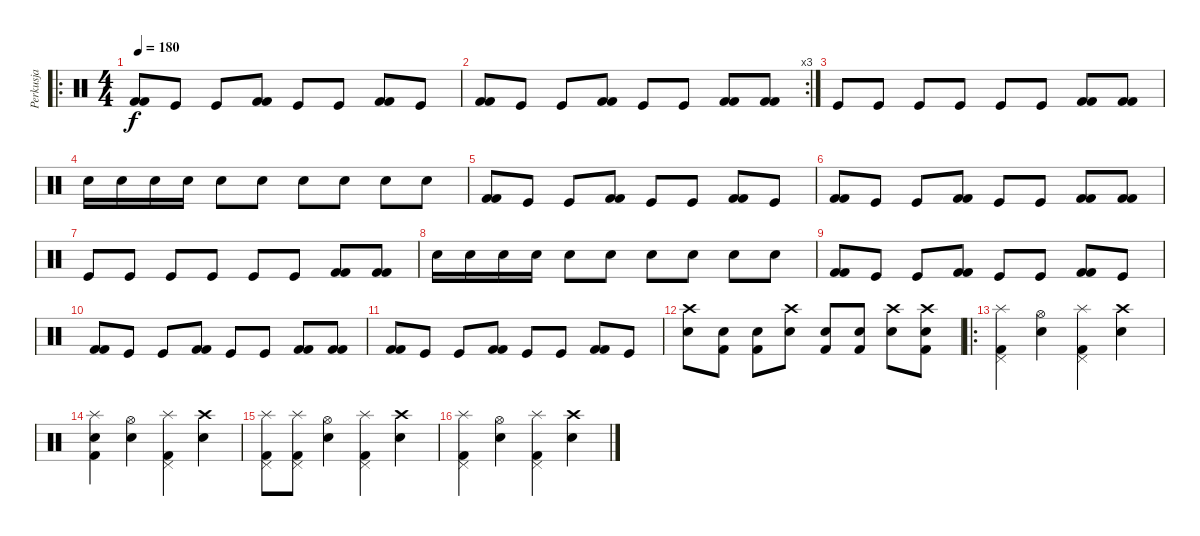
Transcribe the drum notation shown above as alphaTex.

\track ("Perkusja" "Perkusja") {instrument percussion}
\staff {score}
\articulation defaults
\ro
\ts (4 4)
\tempo 180
\clef neutral
\ks c
("Kick (hit) 2" "Kick (hit) 2").8{dy f} "Kick (hit)".8 "Kick (hit)".8 ("Kick (hit) 2" "Kick (hit) 2").8 "Kick (hit)".8 "Kick (hit)".8 ("Kick (hit) 2" "Kick (hit) 2").8 "Kick (hit)".8 |
\rc 3
("Kick (hit) 2" "Kick (hit) 2").8 "Kick (hit)".8 "Kick (hit)".8 ("Kick (hit) 2" "Kick (hit) 2").8 "Kick (hit)".8 "Kick (hit)".8 ("Kick (hit) 2" "Kick (hit) 2").8 ("Kick (hit) 2" "Kick (hit) 2").8 |
"Kick (hit)".8 "Kick (hit)".8 "Kick (hit)".8 "Kick (hit)".8 "Kick (hit)".8 "Kick (hit)".8 ("Kick (hit) 2" "Kick (hit) 2").8 ("Kick (hit) 2" "Kick (hit) 2").8 |
"Snare (hit) 2".16 "Snare (hit) 2".16 "Snare (hit) 2".16 "Snare (hit) 2".16 "Snare (hit) 2".8 "Snare (hit) 2".8 "Snare (hit) 2".8 "Snare (hit) 2".8 "Snare (hit) 2".8 "Snare (hit) 2".8 |
("Kick (hit) 2" "Kick (hit) 2").8 "Kick (hit)".8 "Kick (hit)".8 ("Kick (hit) 2" "Kick (hit) 2").8 "Kick (hit)".8 "Kick (hit)".8 ("Kick (hit) 2" "Kick (hit) 2").8 "Kick (hit)".8 |
("Kick (hit) 2" "Kick (hit) 2").8 "Kick (hit)".8 "Kick (hit)".8 ("Kick (hit) 2" "Kick (hit) 2").8 "Kick (hit)".8 "Kick (hit)".8 ("Kick (hit) 2" "Kick (hit) 2").8 ("Kick (hit) 2" "Kick (hit) 2").8 |
"Kick (hit)".8 "Kick (hit)".8 "Kick (hit)".8 "Kick (hit)".8 "Kick (hit)".8 "Kick (hit)".8 ("Kick (hit) 2" "Kick (hit) 2").8 ("Kick (hit) 2" "Kick (hit) 2").8 |
"Snare (hit) 2".16 "Snare (hit) 2".16 "Snare (hit) 2".16 "Snare (hit) 2".16 "Snare (hit) 2".8 "Snare (hit) 2".8 "Snare (hit) 2".8 "Snare (hit) 2".8 "Snare (hit) 2".8 "Snare (hit) 2".8 |
("Kick (hit) 2" "Kick (hit) 2").8 "Kick (hit)".8 "Kick (hit)".8 ("Kick (hit) 2" "Kick (hit) 2").8 "Kick (hit)".8 "Kick (hit)".8 ("Kick (hit) 2" "Kick (hit) 2").8 "Kick (hit)".8 |
("Kick (hit) 2" "Kick (hit) 2").8 "Kick (hit)".8 "Kick (hit)".8 ("Kick (hit) 2" "Kick (hit) 2").8 "Kick (hit)".8 "Kick (hit)".8 ("Kick (hit) 2" "Kick (hit) 2").8 ("Kick (hit) 2" "Kick (hit) 2").8 |
("Kick (hit) 2" "Kick (hit) 2").8 "Kick (hit)".8 "Kick (hit)".8 ("Kick (hit) 2" "Kick (hit) 2").8 "Kick (hit)".8 "Kick (hit)".8 ("Kick (hit) 2" "Kick (hit) 2").8 "Kick (hit)".8 |
("Crash high (hit)" "Snare (hit) 2").8 ("Snare (hit) 2" "Kick (hit) 2").8 ("Snare (hit) 2" "Kick (hit) 2").8 ("Crash high (hit)" "Snare (hit) 2").8 ("Snare (hit) 2" "Kick (hit) 2").8 ("Snare (hit) 2" "Kick (hit) 2").8 ("Crash high (hit)" "Snare (hit) 2").8 ("Crash high (hit)" "Snare (hit) 2" "Kick (hit) 2").8 |
\ro
("Pedal Hi-Hat (hit)" "Splash (hit)" "Kick (hit) 2").4 ("Hi-Hat (open)" "Snare (hit) 2").4 ("Pedal Hi-Hat (hit)" "Splash (hit)" "Kick (hit) 2").4 ("Crash high (hit)" "Snare (hit) 2").4 |
("Snare (hit)" "Splash (hit)" "Kick (hit) 2").4 ("Hi-Hat (open)" "Snare (hit) 2").4 ("Pedal Hi-Hat (hit)" "Splash (hit)" "Kick (hit) 2").4 ("Crash high (hit)" "Snare (hit) 2").4 |
("Pedal Hi-Hat (hit)" "Splash (hit)" "Kick (hit) 2").8 ("Pedal Hi-Hat (hit)" "Splash (hit)" "Kick (hit) 2").8 ("Hi-Hat (open)" "Snare (hit) 2").4 ("Pedal Hi-Hat (hit)" "Splash (hit)" "Kick (hit) 2").4 ("Crash high (hit)" "Snare (hit) 2").4 |
("Pedal Hi-Hat (hit)" "Splash (hit)" "Kick (hit) 2").4 ("Hi-Hat (open)" "Snare (hit) 2").4 ("Pedal Hi-Hat (hit)" "Splash (hit)" "Kick (hit) 2").4 ("Crash high (hit)" "Snare (hit) 2").4
